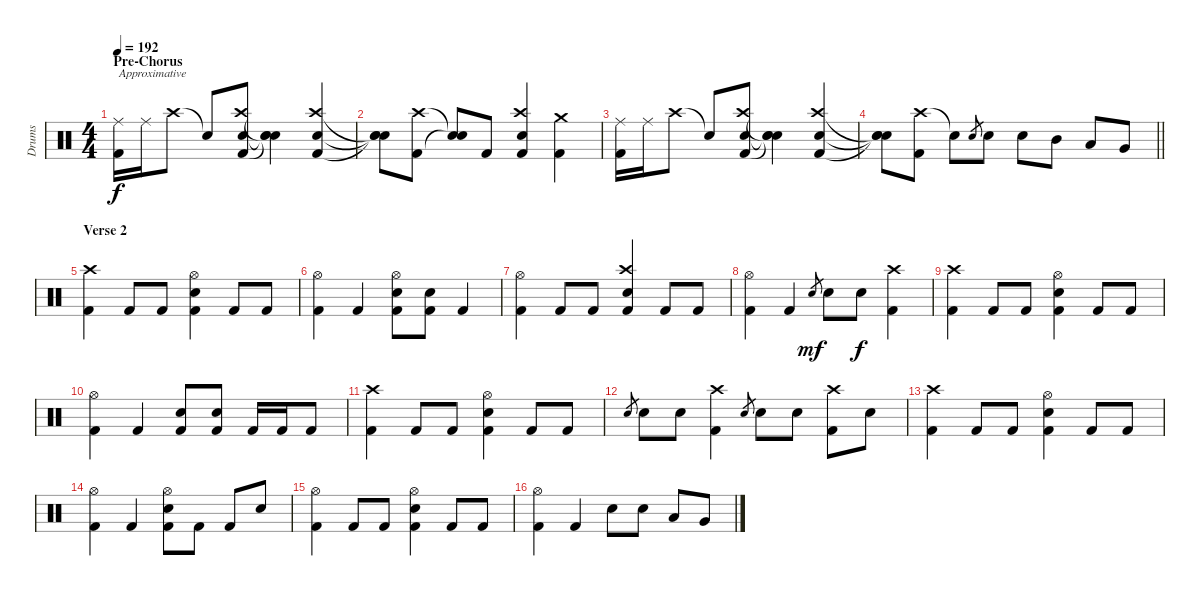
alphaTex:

\track ("Drums" "Drums") {instrument percussion}
\staff {score}
\articulation defaults
\ts (4 4)
\section ("" "Pre-Chorus")
\tempo 192
\clef neutral
\ks c
("Ride (middle)" "Kick (hit) 2").16{txt "Approximative " dy f} "Ride (middle)".16 "Crash high (hit)".8 "Snare (hit)"{t}.8 ("Crash high (hit)" "Snare (hit) 2" "Kick (hit) 2").8 ("Snare (hit)"{t} "Snare (hit)"{t} "Snare (hit)"{t}).4 ("Crash high (hit)" "Snare (hit) 2" "Kick (hit) 2").4 |
("Snare (hit)"{t} "Snare (hit)"{t} "Snare (hit)"{t}).8 ("Crash high (hit)" "Kick (hit) 2").8 ("Snare (hit)"{t} "Snare (hit)"{t}).8 "Kick (hit) 2".8 ("Crash high (hit)" "Snare (hit) 2" "Kick (hit) 2").4 ("Crash medium (hit)" "Kick (hit) 2").4 |
("Ride (middle)" "Kick (hit) 2").16 "Ride (middle)".16 "Crash high (hit)".8 "Snare (hit)"{t}.8 ("Crash high (hit)" "Snare (hit) 2" "Kick (hit) 2").8 ("Snare (hit)"{t} "Snare (hit)"{t} "Snare (hit)"{t}).4 ("Crash high (hit)" "Snare (hit) 2" "Kick (hit) 2").4 |
\barLineRight lightlight
("Snare (hit)"{t} "Snare (hit)"{t} "Snare (hit)"{t}).8 ("Crash high (hit)" "Kick (hit) 2").8 "Snare (hit)"{t}.8 "Snare (hit) 2".8{gr} "Snare (hit) 2".8 "Snare (hit) 2".8 "Mid Tom (hit)".8 "Low Tom (hit)".8 "Very Low Tom (hit)".8 |
\section ("" "Verse 2")
("Crash high (hit)" "Kick (hit) 2").4 "Kick (hit) 2".8 "Kick (hit) 2".8 ("Hi-Hat (open)" "Snare (hit) 2" "Kick (hit) 2").4 "Kick (hit) 2".8 "Kick (hit) 2".8 |
("Hi-Hat (open)" "Kick (hit) 2").4 "Kick (hit) 2".4 ("Hi-Hat (open)" "Snare (hit) 2" "Kick (hit) 2").8 ("Snare (hit) 2" "Kick (hit) 2").8 "Kick (hit) 2".4 |
("Hi-Hat (open)" "Kick (hit) 2").4 "Kick (hit) 2".8 "Kick (hit) 2".8 ("Crash high (hit)" "Snare (hit) 2" "Kick (hit) 2").4 "Kick (hit) 2".8 "Kick (hit) 2".8 |
("Hi-Hat (open)" "Kick (hit) 2").4 "Kick (hit) 2".4 "Snare (hit) 2".8{gr dy mf} "Snare (hit) 2".8 "Snare (hit) 2".8{dy f} ("Crash high (hit)" "Kick (hit) 2").4 |
("Crash high (hit)" "Kick (hit) 2").4 "Kick (hit) 2".8 "Kick (hit) 2".8 ("Hi-Hat (open)" "Snare (hit) 2" "Kick (hit) 2").4 "Kick (hit) 2".8 "Kick (hit) 2".8 |
("Hi-Hat (open)" "Kick (hit) 2").4 "Kick (hit) 2".4 ("Snare (hit) 2" "Kick (hit) 2").8 ("Snare (hit) 2" "Kick (hit) 2").8 "Kick (hit) 2".16 "Kick (hit) 2".16 "Kick (hit) 2".8 |
("Crash high (hit)" "Kick (hit) 2").4 "Kick (hit) 2".8 "Kick (hit) 2".8 ("Hi-Hat (open)" "Snare (hit) 2" "Kick (hit) 2").4 "Kick (hit) 2".8 "Kick (hit) 2".8 |
"Snare (hit) 2".8{gr} "Snare (hit) 2".8 "Snare (hit) 2".8 ("Crash high (hit)" "Kick (hit) 2").4 "Snare (hit) 2".8{gr} "Snare (hit) 2".8 "Snare (hit) 2".8 ("Crash high (hit)" "Kick (hit) 2").8 "Snare (hit) 2".8 |
("Crash high (hit)" "Kick (hit) 2").4 "Kick (hit) 2".8 "Kick (hit) 2".8 ("Hi-Hat (open)" "Snare (hit) 2" "Kick (hit) 2").4 "Kick (hit) 2".8 "Kick (hit) 2".8 |
("Hi-Hat (open)" "Kick (hit) 2").4 "Kick (hit) 2".4 ("Hi-Hat (open)" "Snare (hit) 2" "Kick (hit) 2").8 "Kick (hit) 2".8 "Kick (hit) 2".8 "Snare (hit) 2".8 |
("Hi-Hat (open)" "Kick (hit) 2").4 "Kick (hit) 2".8 "Kick (hit) 2".8 ("Hi-Hat (open)" "Snare (hit) 2" "Kick (hit) 2").4 "Kick (hit) 2".8 "Kick (hit) 2".8 |
("Hi-Hat (open)" "Kick (hit) 2").4 "Kick (hit) 2".4 "Snare (hit) 2".8 "Snare (hit) 2".8 "Low Tom (hit)".8 "Very Low Tom (hit)".8
